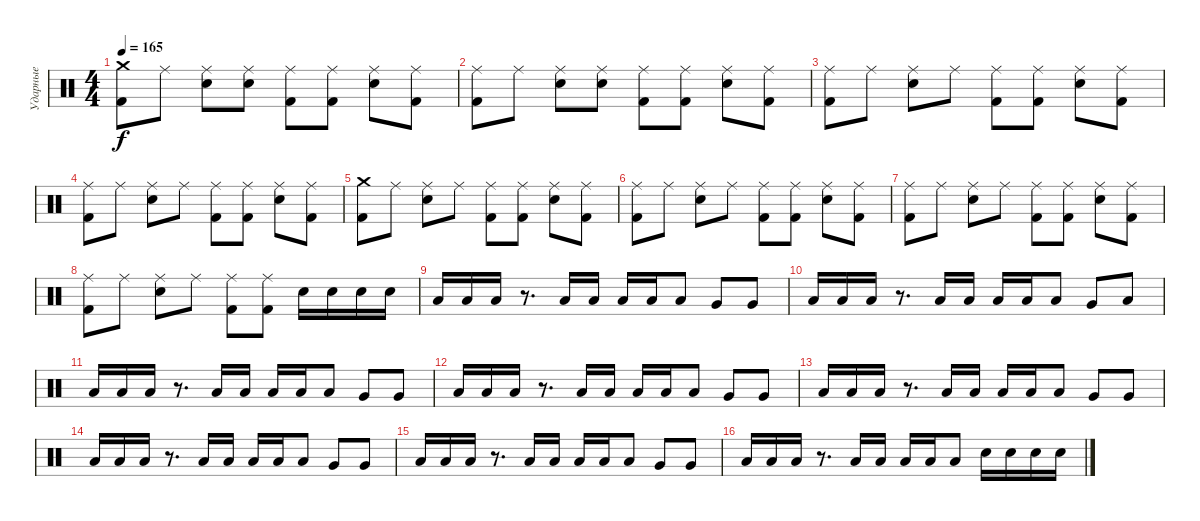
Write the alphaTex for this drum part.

\track ("Ударные" "Ударные") {instrument percussion}
\staff {score}
\articulation defaults
\ts (4 4)
\tempo 165
\clef neutral
\ks c
("Crash medium (hit)" "Kick (hit) 2").8{dy f} "Ride (middle)".8 ("Ride (middle)" "Electric Snare (hit)").8 ("Ride (middle)" "Electric Snare (hit)").8 ("Ride (middle)" "Kick (hit) 2").8 ("Ride (middle)" "Kick (hit) 2").8 ("Ride (middle)" "Electric Snare (hit)").8 ("Ride (middle)" "Kick (hit) 2").8 |
("Ride (middle)" "Kick (hit) 2").8 "Ride (middle)".8 ("Ride (middle)" "Electric Snare (hit)").8 ("Ride (middle)" "Electric Snare (hit)").8 ("Ride (middle)" "Kick (hit) 2").8 ("Ride (middle)" "Kick (hit) 2").8 ("Ride (middle)" "Electric Snare (hit)").8 ("Ride (middle)" "Kick (hit) 2").8 |
("Ride (middle)" "Kick (hit) 2").8 "Ride (middle)".8 ("Ride (middle)" "Electric Snare (hit)").8 "Ride (middle)".8 ("Ride (middle)" "Kick (hit) 2").8 ("Ride (middle)" "Kick (hit) 2").8 ("Ride (middle)" "Electric Snare (hit)").8 ("Ride (middle)" "Kick (hit) 2").8 |
("Ride (middle)" "Kick (hit) 2").8 "Ride (middle)".8 ("Ride (middle)" "Electric Snare (hit)").8 "Ride (middle)".8 ("Ride (middle)" "Kick (hit) 2").8 ("Ride (middle)" "Kick (hit) 2").8 ("Ride (middle)" "Electric Snare (hit)").8 ("Ride (middle)" "Kick (hit) 2").8 |
("Crash medium (hit)" "Kick (hit) 2").8 "Ride (middle)".8 ("Ride (middle)" "Electric Snare (hit)").8 "Ride (middle)".8 ("Ride (middle)" "Kick (hit) 2").8 ("Ride (middle)" "Kick (hit) 2").8 ("Ride (middle)" "Electric Snare (hit)").8 ("Ride (middle)" "Kick (hit) 2").8 |
("Ride (middle)" "Kick (hit) 2").8 "Ride (middle)".8 ("Ride (middle)" "Electric Snare (hit)").8 "Ride (middle)".8 ("Ride (middle)" "Kick (hit) 2").8 ("Ride (middle)" "Kick (hit) 2").8 ("Ride (middle)" "Electric Snare (hit)").8 ("Ride (middle)" "Kick (hit) 2").8 |
("Ride (middle)" "Kick (hit) 2").8 "Ride (middle)".8 ("Ride (middle)" "Electric Snare (hit)").8 "Ride (middle)".8 ("Ride (middle)" "Kick (hit) 2").8 ("Ride (middle)" "Kick (hit) 2").8 ("Ride (middle)" "Electric Snare (hit)").8 ("Ride (middle)" "Kick (hit) 2").8 |
("Ride (middle)" "Kick (hit) 2").8 "Ride (middle)".8 ("Ride (middle)" "Electric Snare (hit)").8 "Ride (middle)".8 ("Ride (middle)" "Kick (hit) 2").8 ("Ride (middle)" "Kick (hit) 2").8 "Electric Snare (hit)".16 "Electric Snare (hit)".16 "Electric Snare (hit)".16 "Electric Snare (hit)".16 |
"Low Tom (hit)".16 "Low Tom (hit)".16 "Low Tom (hit)".16 r.8{d} "Low Tom (hit)".16 "Low Tom (hit)".16 "Low Tom (hit)".16 "Low Tom (hit)".16 "Low Tom (hit)".8 "Very Low Tom (hit)".8 "Very Low Tom (hit)".8 |
"Low Tom (hit)".16 "Low Tom (hit)".16 "Low Tom (hit)".16 r.8{d} "Low Tom (hit)".16 "Low Tom (hit)".16 "Low Tom (hit)".16 "Low Tom (hit)".16 "Low Tom (hit)".8 "Very Low Tom (hit)".8 "Low Floor Tom (hit)".8 |
"Low Tom (hit)".16 "Low Tom (hit)".16 "Low Tom (hit)".16 r.8{d} "Low Tom (hit)".16 "Low Tom (hit)".16 "Low Tom (hit)".16 "Low Tom (hit)".16 "Low Tom (hit)".8 "Very Low Tom (hit)".8 "Very Low Tom (hit)".8 |
"Low Tom (hit)".16 "Low Tom (hit)".16 "Low Tom (hit)".16 r.8{d} "Low Tom (hit)".16 "Low Tom (hit)".16 "Low Tom (hit)".16 "Low Tom (hit)".16 "Low Tom (hit)".8 "Very Low Tom (hit)".8 "Very Low Tom (hit)".8 |
"Low Tom (hit)".16 "Low Tom (hit)".16 "Low Tom (hit)".16 r.8{d} "Low Tom (hit)".16 "Low Tom (hit)".16 "Low Tom (hit)".16 "Low Tom (hit)".16 "Low Tom (hit)".8 "Very Low Tom (hit)".8 "Very Low Tom (hit)".8 |
"Low Tom (hit)".16 "Low Tom (hit)".16 "Low Tom (hit)".16 r.8{d} "Low Tom (hit)".16 "Low Tom (hit)".16 "Low Tom (hit)".16 "Low Tom (hit)".16 "Low Tom (hit)".8 "Very Low Tom (hit)".8 "Very Low Tom (hit)".8 |
"Low Tom (hit)".16 "Low Tom (hit)".16 "Low Tom (hit)".16 r.8{d} "Low Tom (hit)".16 "Low Tom (hit)".16 "Low Tom (hit)".16 "Low Tom (hit)".16 "Low Tom (hit)".8 "Very Low Tom (hit)".8 "Very Low Tom (hit)".8 |
"Low Tom (hit)".16 "Low Tom (hit)".16 "Low Tom (hit)".16 r.8{d} "Low Tom (hit)".16 "Low Tom (hit)".16 "Low Tom (hit)".16 "Low Tom (hit)".16 "Low Tom (hit)".8 "Electric Snare (hit)".16 "Electric Snare (hit)".16 "Electric Snare (hit)".16 "Electric Snare (hit)".16
